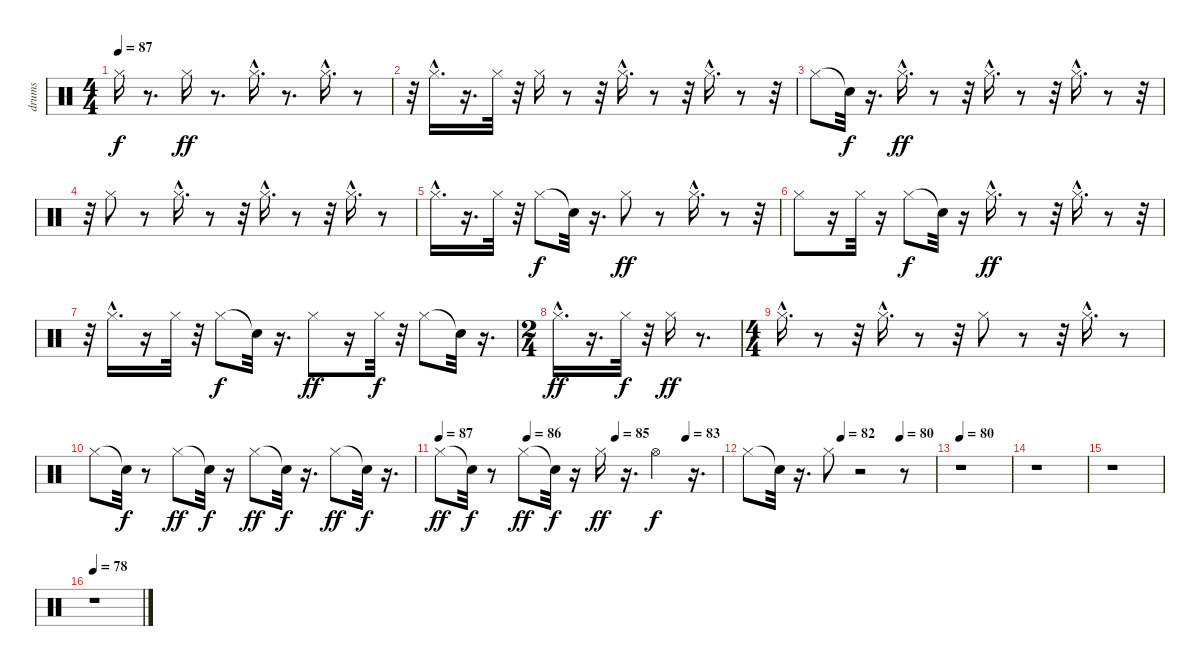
\track ("drums" "drums") {instrument percussion}
\staff {score}
\articulation defaults
\ts (4 4)
\tempo 87
\clef neutral
\ks c "Hi-Hat (closed)".16{dy f}
r.8{d} "Hi-Hat (closed)".16{dy ff} r.8{d} "Hi-Hat (closed)"{hac}.16{d} r.8{d} "Hi-Hat (closed)"{hac}.16{d} r.8 |
r.32 "Hi-Hat (closed)"{hac}.16{d} r.16{d} "Hi-Hat (closed)".32 r.32 "Hi-Hat (closed)".16 r.8 r.32 "Hi-Hat (closed)"{hac}.16{d} r.8 r.32 "Hi-Hat (closed)"{hac}.16{d} r.8 r.32 |
"Hi-Hat (closed)".8 "Snare (hit)"{t}.32{dy f} r.16{d} "Hi-Hat (closed)"{hac}.16{d dy ff} r.8 r.32 "Hi-Hat (closed)"{hac}.16{d} r.8 r.32 "Hi-Hat (closed)"{hac}.16{d} r.8 r.32 |
r.32 "Hi-Hat (closed)".8 r.8 "Hi-Hat (closed)"{hac}.16{d} r.8 r.32 "Hi-Hat (closed)"{hac}.16{d} r.8 r.32 "Hi-Hat (closed)"{hac}.16{d} r.8 |
"Hi-Hat (closed)"{hac}.16{d} r.16{d} "Hi-Hat (closed)".32 r.32 "Hi-Hat (closed)".8{dy f} "Snare (hit)"{t}.32 r.16{d} "Hi-Hat (closed)".8{dy ff} r.8 "Hi-Hat (closed)"{hac}.16{d} r.8 r.32 |
"Hi-Hat (closed)".8 r.16 "Hi-Hat (closed)".32 r.16 "Hi-Hat (closed)".8{dy f} "Snare (hit)"{t}.32 r.16 "Hi-Hat (closed)"{hac}.16{d dy ff} r.8 r.32 "Hi-Hat (closed)"{hac}.16{d} r.8 r.32 |
r.32 "Hi-Hat (closed)"{hac}.16{d} r.16 "Hi-Hat (closed)".32 r.32 "Hi-Hat (closed)".8{dy f} "Snare (hit)"{t}.32 r.16{d} "Hi-Hat (closed)".8{dy ff} r.16 "Hi-Hat (closed)".32{dy f} r.32 "Hi-Hat (closed)".8 "Snare (hit)"{t}.32 r.16{d} |
\ts (2 4)
"Hi-Hat (closed)"{hac}.16{d dy ff} r.16{d} "Hi-Hat (closed)".32{dy f} r.32 "Hi-Hat (closed)".16{dy ff} r.8{d} |
\ts (4 4)
"Hi-Hat (closed)"{hac}.16{d} r.8 r.32 "Hi-Hat (closed)"{hac}.16{d} r.8 r.32 "Hi-Hat (closed)".8 r.8 r.32 "Hi-Hat (closed)"{hac}.16{d} r.8 |
"Hi-Hat (closed)".8 "Snare (hit)"{t}.32{dy f} r.8 "Hi-Hat (closed)".8{dy ff} "Snare (hit)"{t}.32{dy f} r.16 "Hi-Hat (closed)".8{dy ff} "Snare (hit)"{t}.32{dy f} r.16{d} "Hi-Hat (closed)".8{dy ff} "Snare (hit)"{t}.32{dy f} r.16{d} |
\tempo 87
\tempo (86 0.3125)
\tempo (85 0.625)
\tempo (83 0.875)
"Hi-Hat (closed)".8{dy ff} "Snare (hit)"{t}.32{dy f} r.8 "Hi-Hat (closed)".8{dy ff} "Snare (hit)"{t}.32{dy f} r.16 "Hi-Hat (closed)".16{dy ff} r.16{d} "Hi-Hat (open)".4{dy f} r.16{d} |
\tempo (82 0.5)
\tempo (80 0.8125)
"Hi-Hat (closed)".8 "Snare (hit)"{t}.32 r.16{d} "Hi-Hat (closed)".8 r.2 r.8 |
\tempo 80
r.1 |
r.1 |
r.1 |
\tempo 78
r.1
